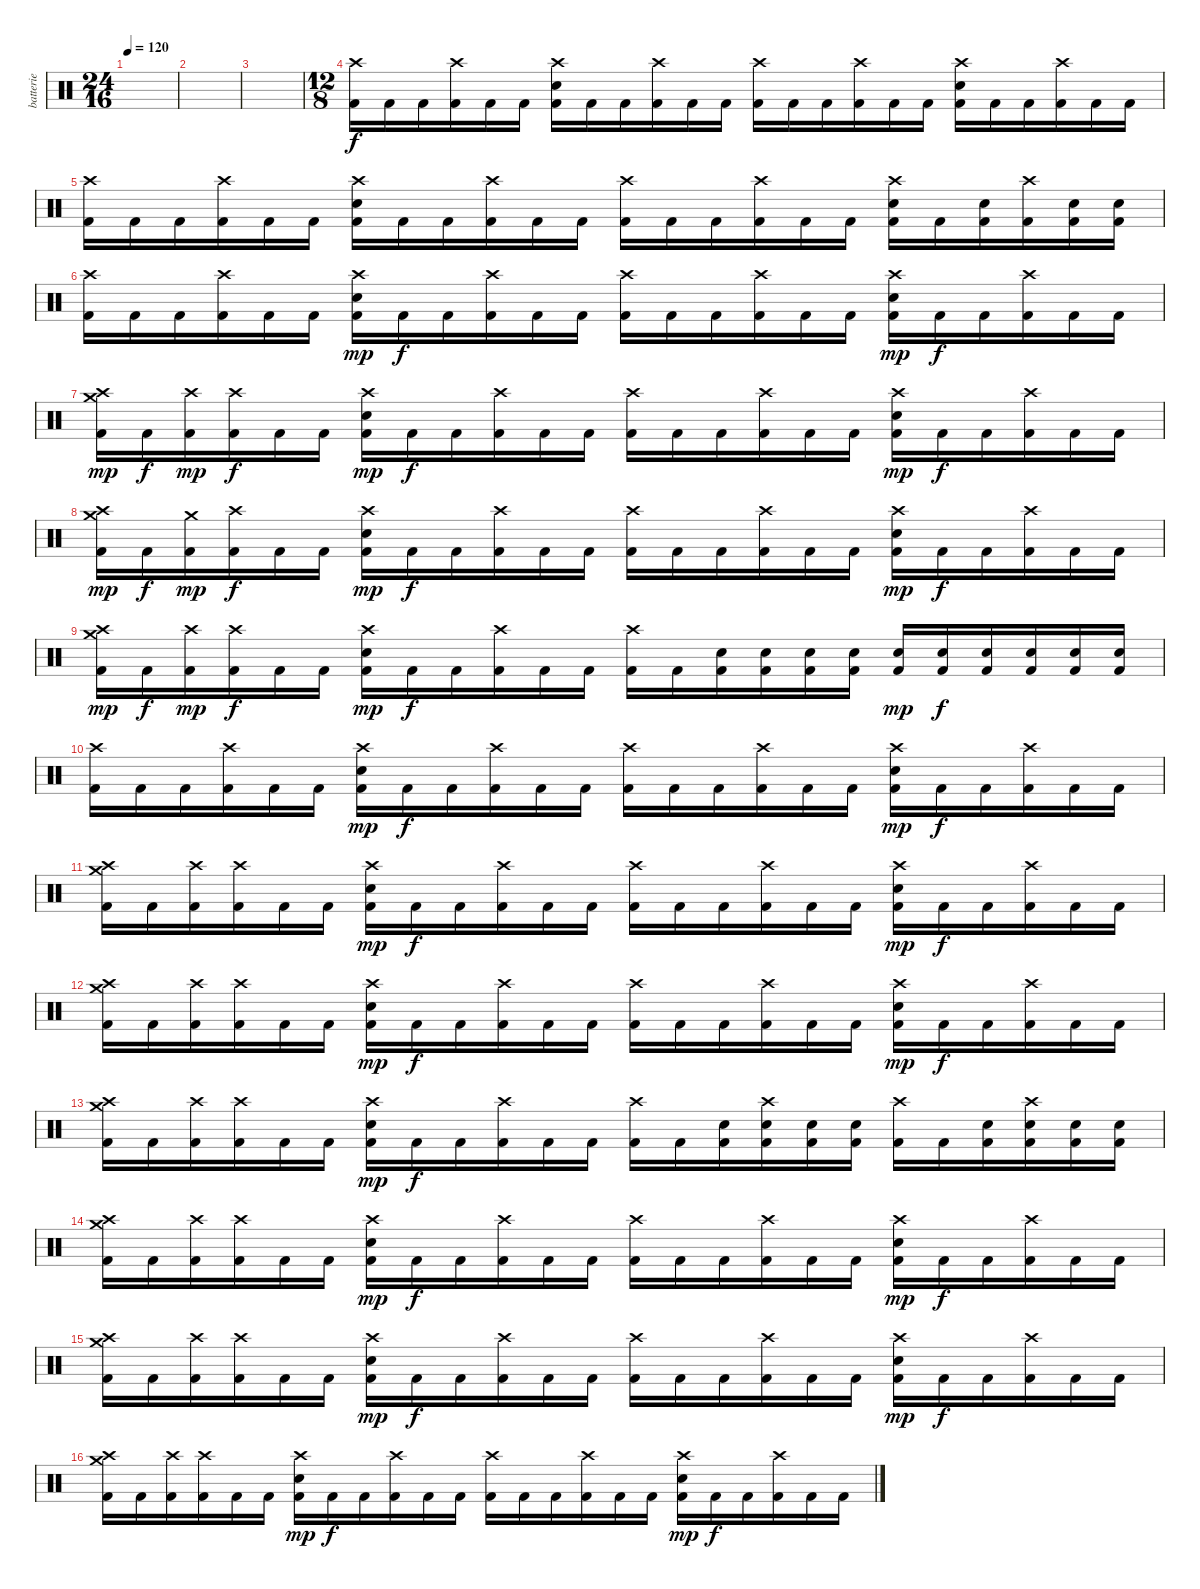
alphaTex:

\track ("batterie" "batterie") {instrument percussion}
\staff {score}
\articulation defaults
\ts (24 16)
\tempo 120
\clef neutral
\ks c
|
|
|
\ts (12 8)
("Crash high (hit)" "Kick (hit) 2").16 "Kick (hit) 2".16 "Kick (hit) 2".16 ("Crash high (hit)" "Kick (hit) 2").16 "Kick (hit) 2".16 "Kick (hit) 2".16 ("Crash high (hit)" "Kick (hit) 2" "Snare (hit) 2").16 "Kick (hit) 2".16 "Kick (hit) 2".16 ("Crash high (hit)" "Kick (hit) 2").16 "Kick (hit) 2".16 "Kick (hit) 2".16 ("Crash high (hit)" "Kick (hit) 2").16 "Kick (hit) 2".16 "Kick (hit) 2".16 ("Crash high (hit)" "Kick (hit) 2").16 "Kick (hit) 2".16 "Kick (hit) 2".16 ("Crash high (hit)" "Kick (hit) 2" "Snare (hit) 2").16 "Kick (hit) 2".16 "Kick (hit) 2".16 ("Crash high (hit)" "Kick (hit) 2").16 "Kick (hit) 2".16 "Kick (hit) 2".16 |
("Crash high (hit)" "Kick (hit) 2").16 "Kick (hit) 2".16 "Kick (hit) 2".16 ("Crash high (hit)" "Kick (hit) 2").16 "Kick (hit) 2".16 "Kick (hit) 2".16 ("Crash high (hit)" "Kick (hit) 2" "Snare (hit) 2").16 "Kick (hit) 2".16 "Kick (hit) 2".16 ("Crash high (hit)" "Kick (hit) 2").16 "Kick (hit) 2".16 "Kick (hit) 2".16 ("Crash high (hit)" "Kick (hit) 2").16 "Kick (hit) 2".16 "Kick (hit) 2".16 ("Crash high (hit)" "Kick (hit) 2").16 "Kick (hit) 2".16 "Kick (hit) 2".16 ("Crash high (hit)" "Kick (hit) 2" "Snare (hit) 2").16 "Kick (hit) 2".16 ("Kick (hit) 2" "Snare (hit) 2").16 ("Crash high (hit)" "Kick (hit) 2").16 ("Kick (hit) 2" "Snare (hit) 2").16 ("Kick (hit) 2" "Snare (hit) 2").16 |
("Crash high (hit)" "Kick (hit) 2").16 "Kick (hit) 2".16 "Kick (hit) 2".16 ("Crash high (hit)" "Kick (hit) 2").16 "Kick (hit) 2".16 "Kick (hit) 2".16 ("Crash high (hit)" "Kick (hit) 2" "Snare (hit) 2").16{dy mp} "Kick (hit) 2".16{dy f} "Kick (hit) 2".16 ("Crash high (hit)" "Kick (hit) 2").16 "Kick (hit) 2".16 "Kick (hit) 2".16 ("Crash high (hit)" "Kick (hit) 2").16 "Kick (hit) 2".16 "Kick (hit) 2".16 ("Crash high (hit)" "Kick (hit) 2").16 "Kick (hit) 2".16 "Kick (hit) 2".16 ("Crash high (hit)" "Kick (hit) 2" "Snare (hit) 2").16{dy mp} "Kick (hit) 2".16{dy f} "Kick (hit) 2".16 ("Crash high (hit)" "Kick (hit) 2").16 "Kick (hit) 2".16 "Kick (hit) 2".16 |
("Crash high (hit)" "Kick (hit) 2" "Crash medium (hit)").16{dy mp} "Kick (hit) 2".16{dy f} ("Kick (hit) 2" "Crash high (hit)").16{dy mp} ("Crash high (hit)" "Kick (hit) 2").16{dy f} "Kick (hit) 2".16 "Kick (hit) 2".16 ("Crash high (hit)" "Kick (hit) 2" "Snare (hit) 2").16{dy mp} "Kick (hit) 2".16{dy f} "Kick (hit) 2".16 ("Crash high (hit)" "Kick (hit) 2").16 "Kick (hit) 2".16 "Kick (hit) 2".16 ("Crash high (hit)" "Kick (hit) 2").16 "Kick (hit) 2".16 "Kick (hit) 2".16 ("Crash high (hit)" "Kick (hit) 2").16 "Kick (hit) 2".16 "Kick (hit) 2".16 ("Crash high (hit)" "Kick (hit) 2" "Snare (hit) 2").16{dy mp} "Kick (hit) 2".16{dy f} "Kick (hit) 2".16 ("Crash high (hit)" "Kick (hit) 2").16 "Kick (hit) 2".16 "Kick (hit) 2".16 |
("Crash high (hit)" "Kick (hit) 2" "Crash medium (hit)").16{dy mp} "Kick (hit) 2".16{dy f} ("Kick (hit) 2" "Crash medium (hit)").16{dy mp} ("Crash high (hit)" "Kick (hit) 2").16{dy f} "Kick (hit) 2".16 "Kick (hit) 2".16 ("Crash high (hit)" "Kick (hit) 2" "Snare (hit) 2").16{dy mp} "Kick (hit) 2".16{dy f} "Kick (hit) 2".16 ("Crash high (hit)" "Kick (hit) 2").16 "Kick (hit) 2".16 "Kick (hit) 2".16 ("Crash high (hit)" "Kick (hit) 2").16 "Kick (hit) 2".16 "Kick (hit) 2".16 ("Crash high (hit)" "Kick (hit) 2").16 "Kick (hit) 2".16 "Kick (hit) 2".16 ("Crash high (hit)" "Kick (hit) 2" "Snare (hit) 2").16{dy mp} "Kick (hit) 2".16{dy f} "Kick (hit) 2".16 ("Crash high (hit)" "Kick (hit) 2").16 "Kick (hit) 2".16 "Kick (hit) 2".16 |
("Crash high (hit)" "Kick (hit) 2" "Crash medium (hit)").16{dy mp} "Kick (hit) 2".16{dy f} ("Kick (hit) 2" "Crash high (hit)").16{dy mp} ("Crash high (hit)" "Kick (hit) 2").16{dy f} "Kick (hit) 2".16 "Kick (hit) 2".16 ("Crash high (hit)" "Kick (hit) 2" "Snare (hit) 2").16{dy mp} "Kick (hit) 2".16{dy f} "Kick (hit) 2".16 ("Crash high (hit)" "Kick (hit) 2").16 "Kick (hit) 2".16 "Kick (hit) 2".16 ("Crash high (hit)" "Kick (hit) 2").16 "Kick (hit) 2".16 ("Kick (hit) 2" "Snare (hit) 2").16 ("Kick (hit) 2" "Snare (hit) 2").16 ("Kick (hit) 2" "Snare (hit) 2").16 ("Kick (hit) 2" "Snare (hit) 2").16 ("Kick (hit) 2" "Snare (hit) 2").16{dy mp} ("Kick (hit) 2" "Snare (hit) 2").16{dy f} ("Kick (hit) 2" "Snare (hit) 2").16 ("Kick (hit) 2" "Snare (hit) 2").16 ("Kick (hit) 2" "Snare (hit) 2").16 ("Kick (hit) 2" "Snare (hit) 2").16 |
("Crash high (hit)" "Kick (hit) 2").16 "Kick (hit) 2".16 "Kick (hit) 2".16 ("Crash high (hit)" "Kick (hit) 2").16 "Kick (hit) 2".16 "Kick (hit) 2".16 ("Crash high (hit)" "Kick (hit) 2" "Snare (hit) 2").16{dy mp} "Kick (hit) 2".16{dy f} "Kick (hit) 2".16 ("Crash high (hit)" "Kick (hit) 2").16 "Kick (hit) 2".16 "Kick (hit) 2".16 ("Crash high (hit)" "Kick (hit) 2").16 "Kick (hit) 2".16 "Kick (hit) 2".16 ("Crash high (hit)" "Kick (hit) 2").16 "Kick (hit) 2".16 "Kick (hit) 2".16 ("Crash high (hit)" "Kick (hit) 2" "Snare (hit) 2").16{dy mp} "Kick (hit) 2".16{dy f} "Kick (hit) 2".16 ("Crash high (hit)" "Kick (hit) 2").16 "Kick (hit) 2".16 "Kick (hit) 2".16 |
("Crash high (hit)" "Kick (hit) 2" "Crash medium (hit)").16 "Kick (hit) 2".16 ("Kick (hit) 2" "Crash high (hit)").16 ("Crash high (hit)" "Kick (hit) 2").16 "Kick (hit) 2".16 "Kick (hit) 2".16 ("Crash high (hit)" "Kick (hit) 2" "Snare (hit) 2").16{dy mp} "Kick (hit) 2".16{dy f} "Kick (hit) 2".16 ("Crash high (hit)" "Kick (hit) 2").16 "Kick (hit) 2".16 "Kick (hit) 2".16 ("Crash high (hit)" "Kick (hit) 2").16 "Kick (hit) 2".16 "Kick (hit) 2".16 ("Crash high (hit)" "Kick (hit) 2").16 "Kick (hit) 2".16 "Kick (hit) 2".16 ("Crash high (hit)" "Kick (hit) 2" "Snare (hit) 2").16{dy mp} "Kick (hit) 2".16{dy f} "Kick (hit) 2".16 ("Crash high (hit)" "Kick (hit) 2").16 "Kick (hit) 2".16 "Kick (hit) 2".16 |
("Crash high (hit)" "Kick (hit) 2" "Crash medium (hit)").16 "Kick (hit) 2".16 ("Kick (hit) 2" "Crash high (hit)").16 ("Crash high (hit)" "Kick (hit) 2").16 "Kick (hit) 2".16 "Kick (hit) 2".16 ("Crash high (hit)" "Kick (hit) 2" "Snare (hit) 2").16{dy mp} "Kick (hit) 2".16{dy f} "Kick (hit) 2".16 ("Crash high (hit)" "Kick (hit) 2").16 "Kick (hit) 2".16 "Kick (hit) 2".16 ("Crash high (hit)" "Kick (hit) 2").16 "Kick (hit) 2".16 "Kick (hit) 2".16 ("Crash high (hit)" "Kick (hit) 2").16 "Kick (hit) 2".16 "Kick (hit) 2".16 ("Crash high (hit)" "Kick (hit) 2" "Snare (hit) 2").16{dy mp} "Kick (hit) 2".16{dy f} "Kick (hit) 2".16 ("Crash high (hit)" "Kick (hit) 2").16 "Kick (hit) 2".16 "Kick (hit) 2".16 |
("Crash high (hit)" "Kick (hit) 2" "Crash medium (hit)").16 "Kick (hit) 2".16 ("Kick (hit) 2" "Crash high (hit)").16 ("Crash high (hit)" "Kick (hit) 2").16 "Kick (hit) 2".16 "Kick (hit) 2".16 ("Crash high (hit)" "Kick (hit) 2" "Snare (hit) 2").16{dy mp} "Kick (hit) 2".16{dy f} "Kick (hit) 2".16 ("Crash high (hit)" "Kick (hit) 2").16 "Kick (hit) 2".16 "Kick (hit) 2".16 ("Crash high (hit)" "Kick (hit) 2").16 "Kick (hit) 2".16 ("Kick (hit) 2" "Snare (hit) 2").16 ("Crash high (hit)" "Kick (hit) 2" "Snare (hit) 2").16 ("Kick (hit) 2" "Snare (hit) 2").16 ("Kick (hit) 2" "Snare (hit) 2").16 ("Crash high (hit)" "Kick (hit) 2").16 "Kick (hit) 2".16 ("Kick (hit) 2" "Snare (hit) 2").16 ("Crash high (hit)" "Kick (hit) 2" "Snare (hit) 2").16 ("Kick (hit) 2" "Snare (hit) 2").16 ("Kick (hit) 2" "Snare (hit) 2").16 |
("Crash high (hit)" "Kick (hit) 2" "Crash medium (hit)").16 "Kick (hit) 2".16 ("Kick (hit) 2" "Crash high (hit)").16 ("Crash high (hit)" "Kick (hit) 2").16 "Kick (hit) 2".16 "Kick (hit) 2".16 ("Crash high (hit)" "Kick (hit) 2" "Snare (hit) 2").16{dy mp} "Kick (hit) 2".16{dy f} "Kick (hit) 2".16 ("Crash high (hit)" "Kick (hit) 2").16 "Kick (hit) 2".16 "Kick (hit) 2".16 ("Crash high (hit)" "Kick (hit) 2").16 "Kick (hit) 2".16 "Kick (hit) 2".16 ("Crash high (hit)" "Kick (hit) 2").16 "Kick (hit) 2".16 "Kick (hit) 2".16 ("Crash high (hit)" "Kick (hit) 2" "Snare (hit) 2").16{dy mp} "Kick (hit) 2".16{dy f} "Kick (hit) 2".16 ("Crash high (hit)" "Kick (hit) 2").16 "Kick (hit) 2".16 "Kick (hit) 2".16 |
("Crash high (hit)" "Kick (hit) 2" "Crash medium (hit)").16 "Kick (hit) 2".16 ("Kick (hit) 2" "Crash high (hit)").16 ("Crash high (hit)" "Kick (hit) 2").16 "Kick (hit) 2".16 "Kick (hit) 2".16 ("Crash high (hit)" "Kick (hit) 2" "Snare (hit) 2").16{dy mp} "Kick (hit) 2".16{dy f} "Kick (hit) 2".16 ("Crash high (hit)" "Kick (hit) 2").16 "Kick (hit) 2".16 "Kick (hit) 2".16 ("Crash high (hit)" "Kick (hit) 2").16 "Kick (hit) 2".16 "Kick (hit) 2".16 ("Crash high (hit)" "Kick (hit) 2").16 "Kick (hit) 2".16 "Kick (hit) 2".16 ("Crash high (hit)" "Kick (hit) 2" "Snare (hit) 2").16{dy mp} "Kick (hit) 2".16{dy f} "Kick (hit) 2".16 ("Crash high (hit)" "Kick (hit) 2").16 "Kick (hit) 2".16 "Kick (hit) 2".16 |
("Crash high (hit)" "Kick (hit) 2" "Crash medium (hit)").16 "Kick (hit) 2".16 ("Kick (hit) 2" "Crash high (hit)").16 ("Crash high (hit)" "Kick (hit) 2").16 "Kick (hit) 2".16 "Kick (hit) 2".16 ("Crash high (hit)" "Kick (hit) 2" "Snare (hit) 2").16{dy mp} "Kick (hit) 2".16{dy f} "Kick (hit) 2".16 ("Crash high (hit)" "Kick (hit) 2").16 "Kick (hit) 2".16 "Kick (hit) 2".16 ("Crash high (hit)" "Kick (hit) 2").16 "Kick (hit) 2".16 "Kick (hit) 2".16 ("Crash high (hit)" "Kick (hit) 2").16 "Kick (hit) 2".16 "Kick (hit) 2".16 ("Crash high (hit)" "Kick (hit) 2" "Snare (hit) 2").16{dy mp} "Kick (hit) 2".16{dy f} "Kick (hit) 2".16 ("Crash high (hit)" "Kick (hit) 2").16 "Kick (hit) 2".16 "Kick (hit) 2".16
